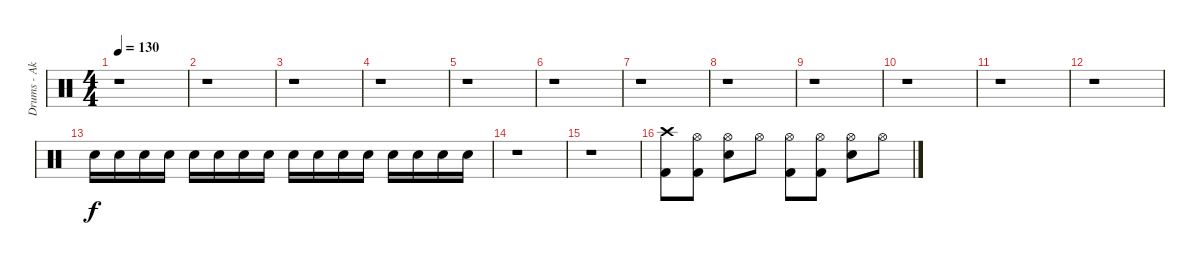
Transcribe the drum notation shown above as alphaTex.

\track ("Drums - Aki Hakala/Janne" "Drums - Ak") {instrument percussion}
\staff {score}
\articulation defaults
\ts (4 4)
\tempo 130
\clef neutral
\ks c
r.1{dy f} |
r.1 |
r.1 |
r.1 |
r.1 |
r.1 |
r.1 |
r.1 |
r.1 |
r.1 |
r.1 |
r.1 |
"Electric Snare (hit)".16 "Electric Snare (hit)".16 "Electric Snare (hit)".16 "Electric Snare (hit)".16 "Electric Snare (hit)".16 "Electric Snare (hit)".16 "Electric Snare (hit)".16 "Electric Snare (hit)".16 "Electric Snare (hit)".16 "Electric Snare (hit)".16 "Electric Snare (hit)".16 "Electric Snare (hit)".16 "Electric Snare (hit)".16 "Electric Snare (hit)".16 "Electric Snare (hit)".16 "Electric Snare (hit)".16 |
r.1 |
r.1 |
("Crash high (hit)" "Kick (hit) 2").8 ("Hi-Hat (open)" "Kick (hit) 2").8 ("Hi-Hat (open)" "Electric Snare (hit)").8 "Hi-Hat (open)".8 ("Hi-Hat (open)" "Kick (hit) 2").8 ("Hi-Hat (open)" "Kick (hit) 2").8 ("Hi-Hat (open)" "Electric Snare (hit)").8 "Hi-Hat (open)".8
